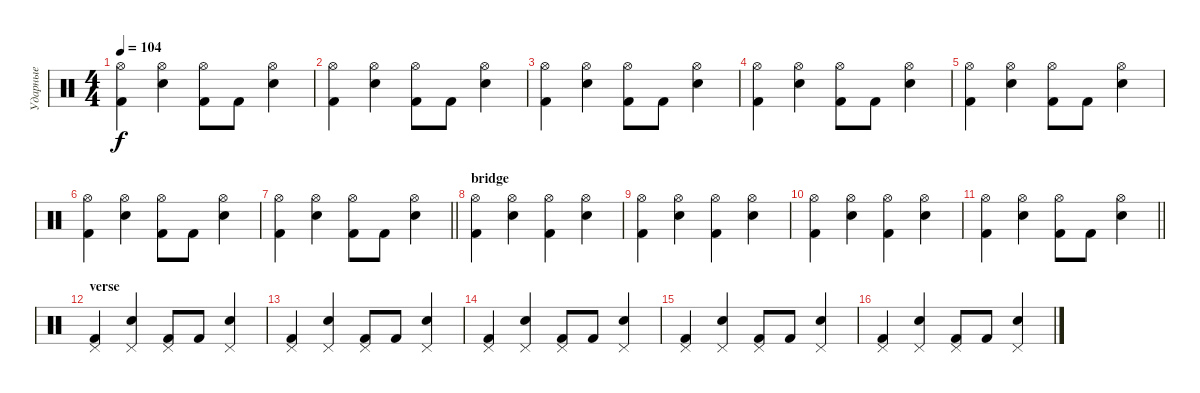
\track ("Ударные" "Ударные") {instrument percussion}
\staff {score}
\articulation defaults
\ts (4 4)
\tempo 104
\clef neutral
\ks c
("Hi-Hat (open)" "Kick (hit) 2").4{dy f} ("Hi-Hat (open)" "Electric Snare (hit)").4 ("Hi-Hat (open)" "Kick (hit) 2").8 "Kick (hit) 2".8 ("Hi-Hat (open)" "Electric Snare (hit)").4 |
("Hi-Hat (open)" "Kick (hit) 2").4 ("Hi-Hat (open)" "Electric Snare (hit)").4 ("Hi-Hat (open)" "Kick (hit) 2").8 "Kick (hit) 2".8 ("Hi-Hat (open)" "Electric Snare (hit)").4 |
("Hi-Hat (open)" "Kick (hit) 2").4 ("Hi-Hat (open)" "Electric Snare (hit)").4 ("Hi-Hat (open)" "Kick (hit) 2").8 "Kick (hit) 2".8 ("Hi-Hat (open)" "Electric Snare (hit)").4 |
("Hi-Hat (open)" "Kick (hit) 2").4 ("Hi-Hat (open)" "Electric Snare (hit)").4 ("Hi-Hat (open)" "Kick (hit) 2").8 "Kick (hit) 2".8 ("Hi-Hat (open)" "Electric Snare (hit)").4 |
("Hi-Hat (open)" "Kick (hit) 2").4 ("Hi-Hat (open)" "Electric Snare (hit)").4 ("Hi-Hat (open)" "Kick (hit) 2").8 "Kick (hit) 2".8 ("Hi-Hat (open)" "Electric Snare (hit)").4 |
("Hi-Hat (open)" "Kick (hit) 2").4 ("Hi-Hat (open)" "Electric Snare (hit)").4 ("Hi-Hat (open)" "Kick (hit) 2").8 "Kick (hit) 2".8 ("Hi-Hat (open)" "Electric Snare (hit)").4 |
\barLineRight lightlight
("Hi-Hat (open)" "Kick (hit) 2").4 ("Hi-Hat (open)" "Electric Snare (hit)").4 ("Hi-Hat (open)" "Kick (hit) 2").8 "Kick (hit) 2".8 ("Hi-Hat (open)" "Electric Snare (hit)").4 |
\section ("" "bridge")
("Hi-Hat (open)" "Kick (hit) 2").4 ("Hi-Hat (open)" "Electric Snare (hit)").4 ("Hi-Hat (open)" "Kick (hit) 2").4 ("Hi-Hat (open)" "Electric Snare (hit)").4 |
("Hi-Hat (open)" "Kick (hit) 2").4 ("Hi-Hat (open)" "Electric Snare (hit)").4 ("Hi-Hat (open)" "Kick (hit) 2").4 ("Hi-Hat (open)" "Electric Snare (hit)").4 |
("Hi-Hat (open)" "Kick (hit) 2").4 ("Hi-Hat (open)" "Electric Snare (hit)").4 ("Hi-Hat (open)" "Kick (hit) 2").4 ("Hi-Hat (open)" "Electric Snare (hit)").4 |
\barLineRight lightlight
("Hi-Hat (open)" "Kick (hit) 2").4 ("Hi-Hat (open)" "Electric Snare (hit)").4 ("Hi-Hat (open)" "Kick (hit) 2").8 "Kick (hit) 2".8 ("Hi-Hat (open)" "Electric Snare (hit)").4 |
\section ("" "verse")
("Pedal Hi-Hat (hit)" "Kick (hit) 2").4 ("Pedal Hi-Hat (hit)" "Electric Snare (hit)").4 ("Pedal Hi-Hat (hit)" "Kick (hit) 2").8 "Kick (hit) 2".8 ("Pedal Hi-Hat (hit)" "Electric Snare (hit)").4 |
("Pedal Hi-Hat (hit)" "Kick (hit) 2").4 ("Pedal Hi-Hat (hit)" "Electric Snare (hit)").4 ("Pedal Hi-Hat (hit)" "Kick (hit) 2").8 "Kick (hit) 2".8 ("Pedal Hi-Hat (hit)" "Electric Snare (hit)").4 |
("Pedal Hi-Hat (hit)" "Kick (hit) 2").4 ("Pedal Hi-Hat (hit)" "Electric Snare (hit)").4 ("Pedal Hi-Hat (hit)" "Kick (hit) 2").8 "Kick (hit) 2".8 ("Pedal Hi-Hat (hit)" "Electric Snare (hit)").4 |
("Pedal Hi-Hat (hit)" "Kick (hit) 2").4 ("Pedal Hi-Hat (hit)" "Electric Snare (hit)").4 ("Pedal Hi-Hat (hit)" "Kick (hit) 2").8 "Kick (hit) 2".8 ("Pedal Hi-Hat (hit)" "Electric Snare (hit)").4 |
("Pedal Hi-Hat (hit)" "Kick (hit) 2").4 ("Pedal Hi-Hat (hit)" "Electric Snare (hit)").4 ("Pedal Hi-Hat (hit)" "Kick (hit) 2").8 "Kick (hit) 2".8 ("Pedal Hi-Hat (hit)" "Electric Snare (hit)").4
